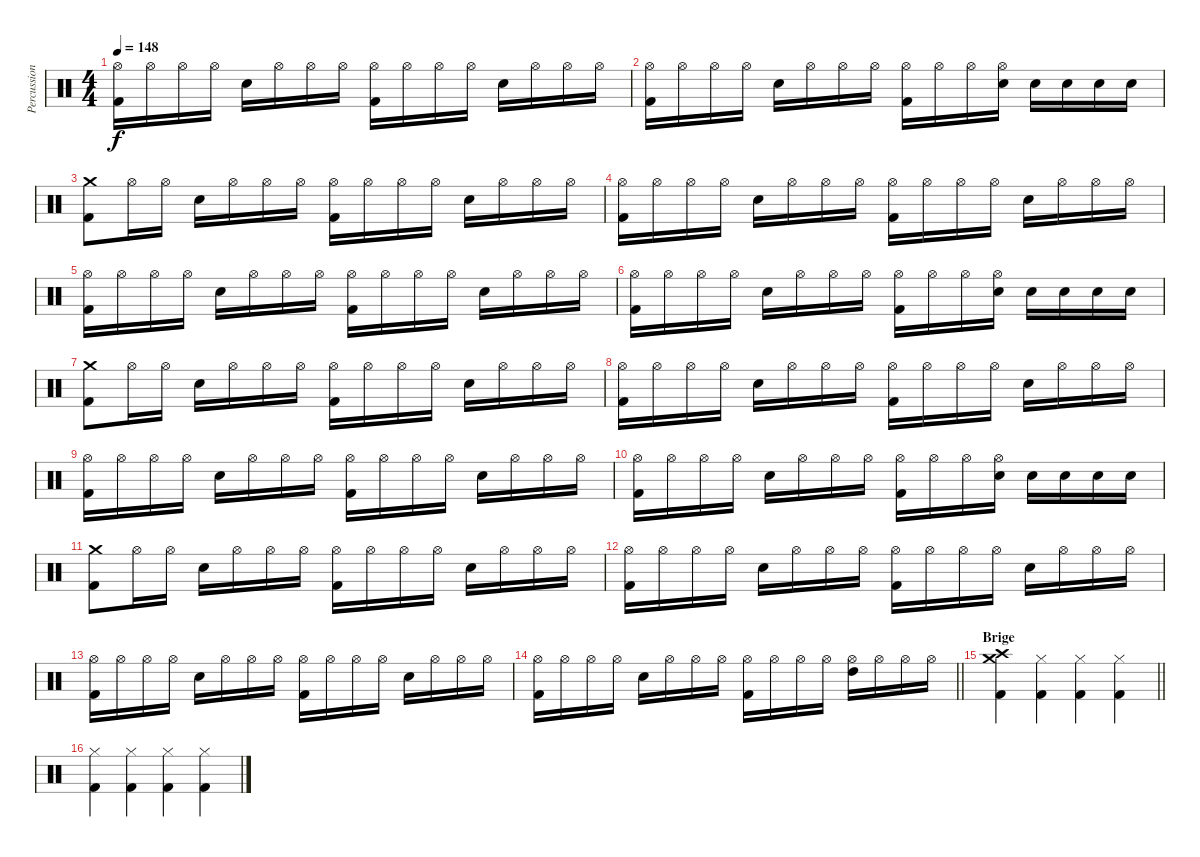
\track ("Percussion" "Percussion") {instrument percussion}
\staff {score}
\articulation defaults
\ts (4 4)
\tempo 148
\clef neutral
\ks c
("Hi-Hat (open)" "Kick (hit) 2").16{dy f} "Hi-Hat (open)".16 "Hi-Hat (open)".16 "Hi-Hat (open)".16 "Snare (hit) 2".16 "Hi-Hat (open)".16 "Hi-Hat (open)".16 "Hi-Hat (open)".16 ("Hi-Hat (open)" "Kick (hit) 2").16 "Hi-Hat (open)".16 "Hi-Hat (open)".16 "Hi-Hat (open)".16 "Snare (hit) 2".16 "Hi-Hat (open)".16 "Hi-Hat (open)".16 "Hi-Hat (open)".16 |
("Hi-Hat (open)" "Kick (hit) 2").16 "Hi-Hat (open)".16 "Hi-Hat (open)".16 "Hi-Hat (open)".16 "Snare (hit) 2".16 "Hi-Hat (open)".16 "Hi-Hat (open)".16 "Hi-Hat (open)".16 ("Hi-Hat (open)" "Kick (hit) 2").16 "Hi-Hat (open)".16 "Hi-Hat (open)".16 ("Hi-Hat (open)" "Snare (hit) 2").16 "Snare (hit) 2".16 "Snare (hit) 2".16 "Snare (hit) 2".16 "Snare (hit) 2".16 |
("Crash medium (hit)" "Kick (hit) 2").8 "Hi-Hat (open)".16 "Hi-Hat (open)".16 "Snare (hit) 2".16 "Hi-Hat (open)".16 "Hi-Hat (open)".16 "Hi-Hat (open)".16 ("Hi-Hat (open)" "Kick (hit) 2").16 "Hi-Hat (open)".16 "Hi-Hat (open)".16 "Hi-Hat (open)".16 "Snare (hit) 2".16 "Hi-Hat (open)".16 "Hi-Hat (open)".16 "Hi-Hat (open)".16 |
("Hi-Hat (open)" "Kick (hit) 2").16 "Hi-Hat (open)".16 "Hi-Hat (open)".16 "Hi-Hat (open)".16 "Snare (hit) 2".16 "Hi-Hat (open)".16 "Hi-Hat (open)".16 "Hi-Hat (open)".16 ("Hi-Hat (open)" "Kick (hit) 2").16 "Hi-Hat (open)".16 "Hi-Hat (open)".16 "Hi-Hat (open)".16 "Snare (hit) 2".16 "Hi-Hat (open)".16 "Hi-Hat (open)".16 "Hi-Hat (open)".16 |
("Hi-Hat (open)" "Kick (hit) 2").16 "Hi-Hat (open)".16 "Hi-Hat (open)".16 "Hi-Hat (open)".16 "Snare (hit) 2".16 "Hi-Hat (open)".16 "Hi-Hat (open)".16 "Hi-Hat (open)".16 ("Hi-Hat (open)" "Kick (hit) 2").16 "Hi-Hat (open)".16 "Hi-Hat (open)".16 "Hi-Hat (open)".16 "Snare (hit) 2".16 "Hi-Hat (open)".16 "Hi-Hat (open)".16 "Hi-Hat (open)".16 |
("Hi-Hat (open)" "Kick (hit) 2").16 "Hi-Hat (open)".16 "Hi-Hat (open)".16 "Hi-Hat (open)".16 "Snare (hit) 2".16 "Hi-Hat (open)".16 "Hi-Hat (open)".16 "Hi-Hat (open)".16 ("Hi-Hat (open)" "Kick (hit) 2").16 "Hi-Hat (open)".16 "Hi-Hat (open)".16 ("Hi-Hat (open)" "Snare (hit) 2").16 "Snare (hit) 2".16 "Snare (hit) 2".16 "Snare (hit) 2".16 "Snare (hit) 2".16 |
("Crash medium (hit)" "Kick (hit) 2").8 "Hi-Hat (open)".16 "Hi-Hat (open)".16 "Snare (hit) 2".16 "Hi-Hat (open)".16 "Hi-Hat (open)".16 "Hi-Hat (open)".16 ("Hi-Hat (open)" "Kick (hit) 2").16 "Hi-Hat (open)".16 "Hi-Hat (open)".16 "Hi-Hat (open)".16 "Snare (hit) 2".16 "Hi-Hat (open)".16 "Hi-Hat (open)".16 "Hi-Hat (open)".16 |
("Hi-Hat (open)" "Kick (hit) 2").16 "Hi-Hat (open)".16 "Hi-Hat (open)".16 "Hi-Hat (open)".16 "Snare (hit) 2".16 "Hi-Hat (open)".16 "Hi-Hat (open)".16 "Hi-Hat (open)".16 ("Hi-Hat (open)" "Kick (hit) 2").16 "Hi-Hat (open)".16 "Hi-Hat (open)".16 "Hi-Hat (open)".16 "Snare (hit) 2".16 "Hi-Hat (open)".16 "Hi-Hat (open)".16 "Hi-Hat (open)".16 |
("Hi-Hat (open)" "Kick (hit) 2").16 "Hi-Hat (open)".16 "Hi-Hat (open)".16 "Hi-Hat (open)".16 "Snare (hit) 2".16 "Hi-Hat (open)".16 "Hi-Hat (open)".16 "Hi-Hat (open)".16 ("Hi-Hat (open)" "Kick (hit) 2").16 "Hi-Hat (open)".16 "Hi-Hat (open)".16 "Hi-Hat (open)".16 "Snare (hit) 2".16 "Hi-Hat (open)".16 "Hi-Hat (open)".16 "Hi-Hat (open)".16 |
("Hi-Hat (open)" "Kick (hit) 2").16 "Hi-Hat (open)".16 "Hi-Hat (open)".16 "Hi-Hat (open)".16 "Snare (hit) 2".16 "Hi-Hat (open)".16 "Hi-Hat (open)".16 "Hi-Hat (open)".16 ("Hi-Hat (open)" "Kick (hit) 2").16 "Hi-Hat (open)".16 "Hi-Hat (open)".16 ("Hi-Hat (open)" "Snare (hit) 2").16 "Snare (hit) 2".16 "Snare (hit) 2".16 "Snare (hit) 2".16 "Snare (hit) 2".16 |
("Crash medium (hit)" "Kick (hit) 2").8 "Hi-Hat (open)".16 "Hi-Hat (open)".16 "Snare (hit) 2".16 "Hi-Hat (open)".16 "Hi-Hat (open)".16 "Hi-Hat (open)".16 ("Hi-Hat (open)" "Kick (hit) 2").16 "Hi-Hat (open)".16 "Hi-Hat (open)".16 "Hi-Hat (open)".16 "Snare (hit) 2".16 "Hi-Hat (open)".16 "Hi-Hat (open)".16 "Hi-Hat (open)".16 |
("Hi-Hat (open)" "Kick (hit) 2").16 "Hi-Hat (open)".16 "Hi-Hat (open)".16 "Hi-Hat (open)".16 "Snare (hit) 2".16 "Hi-Hat (open)".16 "Hi-Hat (open)".16 "Hi-Hat (open)".16 ("Hi-Hat (open)" "Kick (hit) 2").16 "Hi-Hat (open)".16 "Hi-Hat (open)".16 "Hi-Hat (open)".16 "Snare (hit) 2".16 "Hi-Hat (open)".16 "Hi-Hat (open)".16 "Hi-Hat (open)".16 |
("Hi-Hat (open)" "Kick (hit) 2").16 "Hi-Hat (open)".16 "Hi-Hat (open)".16 "Hi-Hat (open)".16 "Snare (hit) 2".16 "Hi-Hat (open)".16 "Hi-Hat (open)".16 "Hi-Hat (open)".16 ("Hi-Hat (open)" "Kick (hit) 2").16 "Hi-Hat (open)".16 "Hi-Hat (open)".16 "Hi-Hat (open)".16 "Snare (hit) 2".16 "Hi-Hat (open)".16 "Hi-Hat (open)".16 "Hi-Hat (open)".16 |
\barLineRight lightlight
("Hi-Hat (open)" "Kick (hit) 2").16 "Hi-Hat (open)".16 "Hi-Hat (open)".16 "Hi-Hat (open)".16 "Snare (hit) 2".16 "Hi-Hat (open)".16 "Hi-Hat (open)".16 "Hi-Hat (open)".16 ("Hi-Hat (open)" "Kick (hit) 2").16 "Hi-Hat (open)".16 "Hi-Hat (open)".16 "Hi-Hat (open)".16 ("Hi-Hat (open)" "High Tom (hit)").16 "Hi-Hat (open)".16 "Hi-Hat (open)".16 "Hi-Hat (open)".16 |
\section ("" "Brige")
\barLineRight lightlight
("Crash medium (hit)" "Crash high (hit)" "Kick (hit) 2").4 ("Hi-Hat (closed)" "Kick (hit) 2").4 ("Hi-Hat (closed)" "Kick (hit) 2").4 ("Hi-Hat (closed)" "Kick (hit) 2").4 |
("Hi-Hat (closed)" "Kick (hit) 2").4 ("Hi-Hat (closed)" "Kick (hit) 2").4 ("Hi-Hat (closed)" "Kick (hit) 2").4 ("Hi-Hat (closed)" "Kick (hit) 2").4
